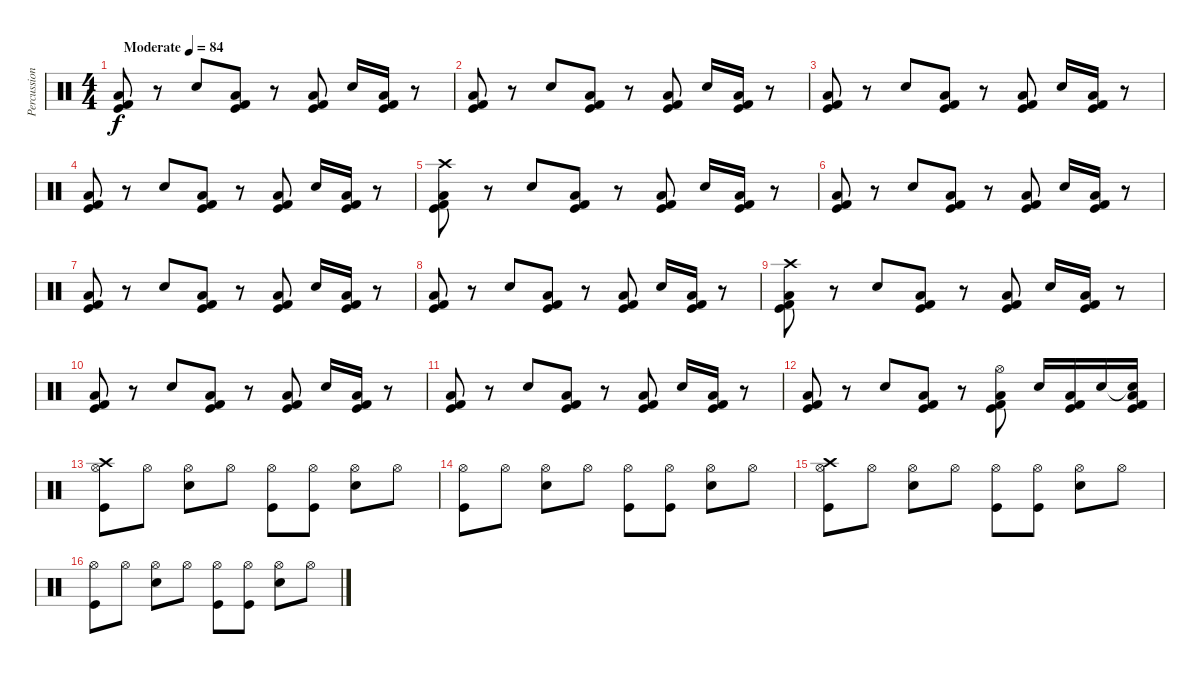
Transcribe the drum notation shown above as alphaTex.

\track ("Percussion" "Percussion") {instrument percussion}
\staff {score}
\articulation defaults
\ts (4 4)
\tempo (84 "Moderate")
\clef neutral
\ks c
("Kick (hit) 2" "Low Floor Tom (hit)" "Kick (hit)").8{dy f} r.8 "Electric Snare (hit)".8 ("Kick (hit) 2" "Low Floor Tom (hit)" "Kick (hit)").8 r.8 ("Kick (hit) 2" "Low Floor Tom (hit)" "Kick (hit)").8 "Electric Snare (hit)".16 ("Kick (hit) 2" "Low Floor Tom (hit)" "Kick (hit)").16 r.8 |
("Kick (hit) 2" "Low Floor Tom (hit)" "Kick (hit)").8 r.8 "Electric Snare (hit)".8 ("Kick (hit) 2" "Low Floor Tom (hit)" "Kick (hit)").8 r.8 ("Kick (hit) 2" "Low Floor Tom (hit)" "Kick (hit)").8 "Electric Snare (hit)".16 ("Kick (hit) 2" "Low Floor Tom (hit)" "Kick (hit)").16 r.8 |
("Kick (hit) 2" "Low Floor Tom (hit)" "Kick (hit)").8 r.8 "Electric Snare (hit)".8 ("Kick (hit) 2" "Low Floor Tom (hit)" "Kick (hit)").8 r.8 ("Kick (hit) 2" "Low Floor Tom (hit)" "Kick (hit)").8 "Electric Snare (hit)".16 ("Kick (hit) 2" "Low Floor Tom (hit)" "Kick (hit)").16 r.8 |
("Kick (hit) 2" "Low Floor Tom (hit)" "Kick (hit)").8 r.8 "Electric Snare (hit)".8 ("Kick (hit) 2" "Low Floor Tom (hit)" "Kick (hit)").8 r.8 ("Kick (hit) 2" "Low Floor Tom (hit)" "Kick (hit)").8 "Electric Snare (hit)".16 ("Kick (hit) 2" "Low Floor Tom (hit)" "Kick (hit)").16 r.8 |
("Crash high (hit)" "Kick (hit) 2" "Low Floor Tom (hit)" "Kick (hit)").8 r.8 "Electric Snare (hit)".8 ("Kick (hit) 2" "Low Floor Tom (hit)" "Kick (hit)").8 r.8 ("Kick (hit) 2" "Low Floor Tom (hit)" "Kick (hit)").8 "Electric Snare (hit)".16 ("Kick (hit) 2" "Low Floor Tom (hit)" "Kick (hit)").16 r.8 |
("Kick (hit) 2" "Low Floor Tom (hit)" "Kick (hit)").8 r.8 "Electric Snare (hit)".8 ("Kick (hit) 2" "Low Floor Tom (hit)" "Kick (hit)").8 r.8 ("Kick (hit) 2" "Low Floor Tom (hit)" "Kick (hit)").8 "Electric Snare (hit)".16 ("Kick (hit) 2" "Low Floor Tom (hit)" "Kick (hit)").16 r.8 |
("Kick (hit) 2" "Low Floor Tom (hit)" "Kick (hit)").8 r.8 "Electric Snare (hit)".8 ("Kick (hit) 2" "Low Floor Tom (hit)" "Kick (hit)").8 r.8 ("Kick (hit) 2" "Low Floor Tom (hit)" "Kick (hit)").8 "Electric Snare (hit)".16 ("Kick (hit) 2" "Low Floor Tom (hit)" "Kick (hit)").16 r.8 |
("Kick (hit) 2" "Low Floor Tom (hit)" "Kick (hit)").8 r.8 "Electric Snare (hit)".8 ("Kick (hit) 2" "Low Floor Tom (hit)" "Kick (hit)").8 r.8 ("Kick (hit) 2" "Low Floor Tom (hit)" "Kick (hit)").8 "Electric Snare (hit)".16 ("Kick (hit) 2" "Low Floor Tom (hit)" "Kick (hit)").16 r.8 |
("Crash high (hit)" "Kick (hit) 2" "Low Floor Tom (hit)" "Kick (hit)").8 r.8 "Electric Snare (hit)".8 ("Kick (hit) 2" "Low Floor Tom (hit)" "Kick (hit)").8 r.8 ("Kick (hit) 2" "Low Floor Tom (hit)" "Kick (hit)").8 "Electric Snare (hit)".16 ("Kick (hit) 2" "Low Floor Tom (hit)" "Kick (hit)").16 r.8 |
("Kick (hit) 2" "Low Floor Tom (hit)" "Kick (hit)").8 r.8 "Electric Snare (hit)".8 ("Kick (hit) 2" "Low Floor Tom (hit)" "Kick (hit)").8 r.8 ("Kick (hit) 2" "Low Floor Tom (hit)" "Kick (hit)").8 "Electric Snare (hit)".16 ("Kick (hit) 2" "Low Floor Tom (hit)" "Kick (hit)").16 r.8 |
("Kick (hit) 2" "Low Floor Tom (hit)" "Kick (hit)").8 r.8 "Electric Snare (hit)".8 ("Kick (hit) 2" "Low Floor Tom (hit)" "Kick (hit)").8 r.8 ("Kick (hit) 2" "Low Floor Tom (hit)" "Kick (hit)").8 "Electric Snare (hit)".16 ("Kick (hit) 2" "Low Floor Tom (hit)" "Kick (hit)").16 r.8 |
("Kick (hit) 2" "Low Floor Tom (hit)" "Kick (hit)").8 r.8 "Electric Snare (hit)".8 ("Kick (hit) 2" "Low Floor Tom (hit)" "Kick (hit)").8 r.8 ("Hi-Hat (open)" "Kick (hit) 2" "Low Floor Tom (hit)" "Kick (hit)").8 "Electric Snare (hit)".16 ("Kick (hit) 2" "Low Floor Tom (hit)" "Kick (hit)").16 "Electric Snare (hit)".16 ("Snare (hit)"{t} "Kick (hit) 2" "Low Floor Tom (hit)" "Kick (hit)").16 |
("Crash high (hit)" "Hi-Hat (open)" "Kick (hit)").8 "Hi-Hat (open)".8 ("Hi-Hat (open)" "Electric Snare (hit)").8 "Hi-Hat (open)".8 ("Hi-Hat (open)" "Kick (hit)").8 ("Hi-Hat (open)" "Kick (hit)").8 ("Hi-Hat (open)" "Electric Snare (hit)").8 "Hi-Hat (open)".8 |
("Hi-Hat (open)" "Kick (hit)").8 "Hi-Hat (open)".8 ("Hi-Hat (open)" "Electric Snare (hit)").8 "Hi-Hat (open)".8 ("Hi-Hat (open)" "Kick (hit)").8 ("Hi-Hat (open)" "Kick (hit)").8 ("Hi-Hat (open)" "Electric Snare (hit)").8 "Hi-Hat (open)".8 |
("Crash high (hit)" "Hi-Hat (open)" "Kick (hit)").8 "Hi-Hat (open)".8 ("Hi-Hat (open)" "Electric Snare (hit)").8 "Hi-Hat (open)".8 ("Hi-Hat (open)" "Kick (hit)").8 ("Hi-Hat (open)" "Kick (hit)").8 ("Hi-Hat (open)" "Electric Snare (hit)").8 "Hi-Hat (open)".8 |
("Hi-Hat (open)" "Kick (hit)").8 "Hi-Hat (open)".8 ("Hi-Hat (open)" "Electric Snare (hit)").8 "Hi-Hat (open)".8 ("Hi-Hat (open)" "Kick (hit)").8 ("Hi-Hat (open)" "Kick (hit)").8 ("Hi-Hat (open)" "Electric Snare (hit)").8 "Hi-Hat (open)".8
